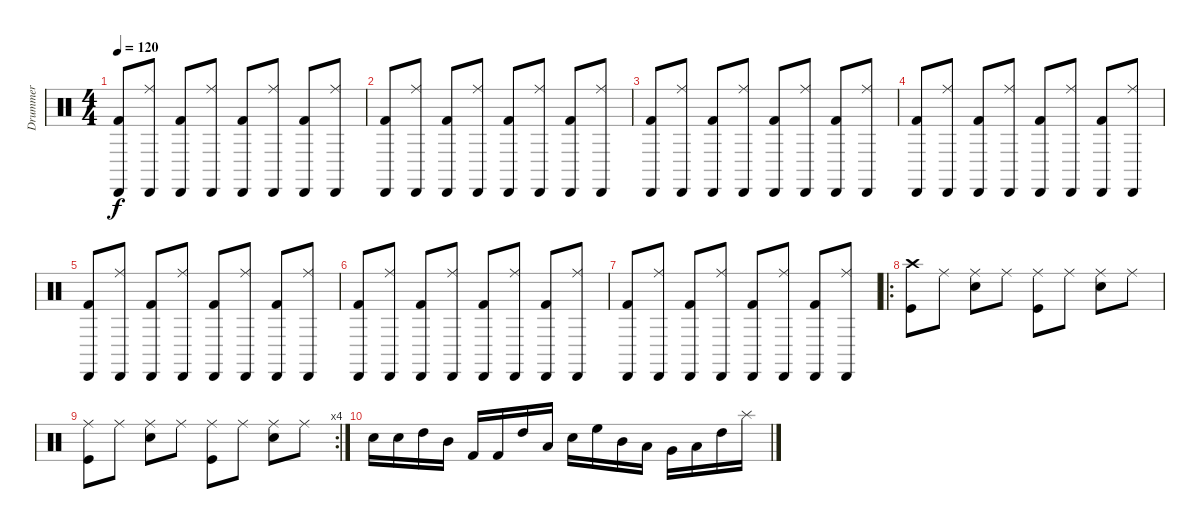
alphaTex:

\track ("Drummer" "Drummer") {instrument percussion}
\staff {score}
\articulation defaults
\ts (4 4)
\tempo 120
\clef neutral
\ks c
("Kick (hit) 2" "Cabasa (hit)").8{dy f} ("Ride (middle)" "Cabasa (hit)").8 ("Kick (hit) 2" "Cabasa (hit)").8 ("Ride (middle)" "Cabasa (hit)").8 ("Kick (hit) 2" "Cabasa (hit)").8 ("Ride (middle)" "Cabasa (hit)").8 ("Kick (hit) 2" "Cabasa (hit)").8 ("Ride (middle)" "Cabasa (hit)").8 |
("Kick (hit) 2" "Cabasa (hit)").8 ("Ride (middle)" "Cabasa (hit)").8 ("Kick (hit) 2" "Cabasa (hit)").8 ("Ride (middle)" "Cabasa (hit)").8 ("Kick (hit) 2" "Cabasa (hit)").8 ("Ride (middle)" "Cabasa (hit)").8 ("Kick (hit) 2" "Cabasa (hit)").8 ("Ride (middle)" "Cabasa (hit)").8 |
("Kick (hit) 2" "Cabasa (hit)").8 ("Ride (middle)" "Cabasa (hit)").8 ("Kick (hit) 2" "Cabasa (hit)").8 ("Ride (middle)" "Cabasa (hit)").8 ("Kick (hit) 2" "Cabasa (hit)").8 ("Ride (middle)" "Cabasa (hit)").8 ("Kick (hit) 2" "Cabasa (hit)").8 ("Ride (middle)" "Cabasa (hit)").8 |
("Kick (hit) 2" "Cabasa (hit)").8 ("Ride (middle)" "Cabasa (hit)").8 ("Kick (hit) 2" "Cabasa (hit)").8 ("Ride (middle)" "Cabasa (hit)").8 ("Kick (hit) 2" "Cabasa (hit)").8 ("Ride (middle)" "Cabasa (hit)").8 ("Kick (hit) 2" "Cabasa (hit)").8 ("Ride (middle)" "Cabasa (hit)").8 |
("Kick (hit) 2" "Cabasa (hit)").8 ("Ride (middle)" "Cabasa (hit)").8 ("Kick (hit) 2" "Cabasa (hit)").8 ("Ride (middle)" "Cabasa (hit)").8 ("Kick (hit) 2" "Cabasa (hit)").8 ("Ride (middle)" "Cabasa (hit)").8 ("Kick (hit) 2" "Cabasa (hit)").8 ("Ride (middle)" "Cabasa (hit)").8 |
("Kick (hit) 2" "Cabasa (hit)").8 ("Ride (middle)" "Cabasa (hit)").8 ("Kick (hit) 2" "Cabasa (hit)").8 ("Ride (middle)" "Cabasa (hit)").8 ("Kick (hit) 2" "Cabasa (hit)").8 ("Ride (middle)" "Cabasa (hit)").8 ("Kick (hit) 2" "Cabasa (hit)").8 ("Ride (middle)" "Cabasa (hit)").8 |
("Kick (hit) 2" "Cabasa (hit)").8 ("Ride (middle)" "Cabasa (hit)").8 ("Kick (hit) 2" "Cabasa (hit)").8 ("Ride (middle)" "Cabasa (hit)").8 ("Kick (hit) 2" "Cabasa (hit)").8 ("Ride (middle)" "Cabasa (hit)").8 ("Kick (hit) 2" "Cabasa (hit)").8 ("Ride (middle)" "Cabasa (hit)").8 |
\ro
("Crash high (hit)" "Kick (hit)").8 "Ride (middle)".8 ("Ride (middle)" "Snare (hit) 2").8 "Ride (middle)".8 ("Ride (middle)" "Kick (hit)").8 "Ride (middle)".8 ("Ride (middle)" "Snare (hit) 2").8 "Ride (middle)".8 |
\rc 4
("Ride (middle)" "Kick (hit)").8 "Ride (middle)".8 ("Ride (middle)" "Snare (hit) 2").8 "Ride (middle)".8 ("Ride (middle)" "Kick (hit)").8 "Ride (middle)".8 ("Ride (middle)" "Snare (hit) 2").8 "Ride (middle)".8 |
"Electric Snare (hit)".16 "Electric Snare (hit)".16 "High Tom (hit)".16 "Mid Tom (hit)".16 "Kick (hit) 2".16 "Kick (hit) 2".16 "High Tom (hit)".16 "Low Tom (hit)".16 "Snare (hit) 2".16 "High Floor Tom (hit)".16 "Mid Tom (hit)".16 "Low Tom (hit)".16 "Very Low Tom (hit)".16 "Low Floor Tom (hit)".16 "High Tom (hit)".16 "Splash (hit)".16
